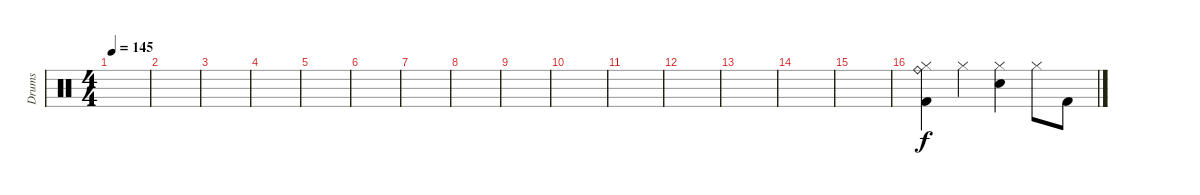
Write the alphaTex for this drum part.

\track ("Drums" "Drums") {instrument percussion}
\staff {score}
\articulation defaults
\ts (4 4)
\tempo 145
\clef neutral
\ks c
|
|
|
|
|
|
|
|
|
|
|
|
|
|
|
("Ride (bell)" "Hi-Hat (closed)" "Kick (hit) 2").4 "Hi-Hat (closed)".4 ("Hi-Hat (closed)" "Electric Snare (hit)").4 "Hi-Hat (closed)".8 "Kick (hit) 2".8
